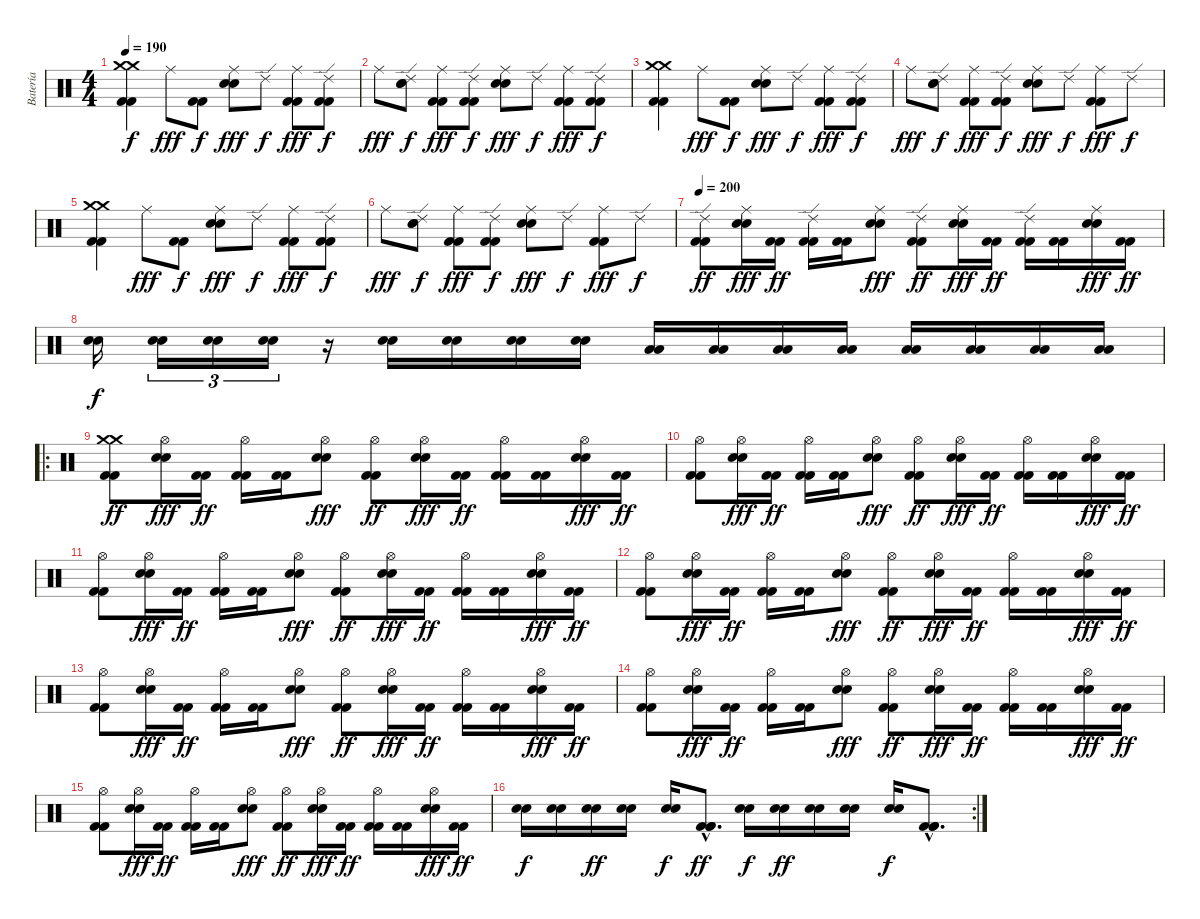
\track ("Batería" "Batería") {instrument percussion}
\staff {score}
\articulation defaults
\ts (4 4)
\tempo 190
\clef neutral
\ks c
("Crash medium (hit)" "Crash medium (hit)" "Kick (hit) 2" "Kick (hit) 2").4{dy f} "Ride (middle)".8{dy fff} ("Kick (hit) 2" "Kick (hit) 2").8{dy f} ("Ride (middle)" "Electric Snare (hit)" "Electric Snare (hit)").8{dy fff} "Ride (edge) 2".8{dy f} ("Ride (middle)" "Kick (hit) 2" "Kick (hit) 2").8{dy fff} ("Ride (edge) 2" "Kick (hit) 2" "Kick (hit) 2").8{dy f} |
"Ride (middle)".8{dy fff} ("Ride (edge) 2" "Electric Snare (hit)" "Electric Snare (hit)").8{dy f} ("Ride (middle)" "Kick (hit) 2" "Kick (hit) 2").8{dy fff} ("Ride (edge) 2" "Kick (hit) 2" "Kick (hit) 2").8{dy f} ("Ride (middle)" "Electric Snare (hit)" "Electric Snare (hit)").8{dy fff} "Ride (edge) 2".8{dy f} ("Ride (middle)" "Kick (hit) 2" "Kick (hit) 2").8{dy fff} ("Ride (edge) 2" "Kick (hit) 2" "Kick (hit) 2").8{dy f} |
("Crash medium (hit)" "Crash medium (hit)" "Kick (hit) 2" "Kick (hit) 2").4 "Ride (middle)".8{dy fff} ("Kick (hit) 2" "Kick (hit) 2").8{dy f} ("Ride (middle)" "Electric Snare (hit)" "Electric Snare (hit)").8{dy fff} "Ride (edge) 2".8{dy f} ("Ride (middle)" "Kick (hit) 2" "Kick (hit) 2").8{dy fff} ("Ride (edge) 2" "Kick (hit) 2" "Kick (hit) 2").8{dy f} |
"Ride (middle)".8{dy fff} ("Ride (edge) 2" "Electric Snare (hit)" "Electric Snare (hit)").8{dy f} ("Ride (middle)" "Kick (hit) 2" "Kick (hit) 2").8{dy fff} ("Ride (edge) 2" "Kick (hit) 2" "Kick (hit) 2").8{dy f} ("Ride (middle)" "Electric Snare (hit)" "Electric Snare (hit)").8{dy fff} "Ride (edge) 2".8{dy f} ("Ride (middle)" "Kick (hit) 2" "Kick (hit) 2").8{dy fff} "Ride (edge) 2".8{dy f} |
("Crash medium (hit)" "Crash medium (hit)" "Kick (hit) 2" "Kick (hit) 2").4 "Ride (middle)".8{dy fff} ("Kick (hit) 2" "Kick (hit) 2").8{dy f} ("Ride (middle)" "Electric Snare (hit)" "Electric Snare (hit)").8{dy fff} "Ride (edge) 2".8{dy f} ("Ride (middle)" "Kick (hit) 2" "Kick (hit) 2").8{dy fff} ("Ride (edge) 2" "Kick (hit) 2" "Kick (hit) 2").8{dy f} |
"Ride (middle)".8{dy fff} ("Ride (edge) 2" "Electric Snare (hit)" "Electric Snare (hit)").8{dy f} ("Ride (middle)" "Kick (hit) 2" "Kick (hit) 2").8{dy fff} ("Ride (edge) 2" "Kick (hit) 2" "Kick (hit) 2").8{dy f} ("Ride (middle)" "Electric Snare (hit)" "Electric Snare (hit)").8{dy fff} "Ride (edge) 2".8{dy f} ("Ride (middle)" "Kick (hit) 2" "Kick (hit) 2").8{dy fff} "Ride (edge) 2".8{dy f} |
\tempo 200
("Ride (edge) 2" "Kick (hit) 2" "Kick (hit) 2").8{dy ff} ("Ride (middle)" "Electric Snare (hit)" "Electric Snare (hit)").16{dy fff} ("Kick (hit) 2" "Kick (hit) 2").16{dy ff} ("Ride (edge) 2" "Kick (hit) 2" "Kick (hit) 2").16 ("Kick (hit) 2" "Kick (hit) 2").16 ("Ride (middle)" "Electric Snare (hit)" "Electric Snare (hit)").8{dy fff} ("Ride (edge) 2" "Kick (hit) 2" "Kick (hit) 2").8{dy ff} ("Ride (middle)" "Electric Snare (hit)" "Electric Snare (hit)").16{dy fff} ("Kick (hit) 2" "Kick (hit) 2").16{dy ff} ("Ride (edge) 2" "Kick (hit) 2" "Kick (hit) 2").16 ("Kick (hit) 2" "Kick (hit) 2").16 ("Ride (middle)" "Electric Snare (hit)" "Electric Snare (hit)").16{dy fff} ("Kick (hit) 2" "Kick (hit) 2").16{dy ff} |
("Electric Snare (hit)" "Electric Snare (hit)").16{dy f} ("Electric Snare (hit)" "Electric Snare (hit)").16{tu (3 2)} ("Electric Snare (hit)" "Electric Snare (hit)").16{tu (3 2)} ("Electric Snare (hit)" "Electric Snare (hit)").16{tu (3 2)} r.16 ("Electric Snare (hit)" "Electric Snare (hit)").16 ("Electric Snare (hit)" "Electric Snare (hit)").16 ("Electric Snare (hit)" "Electric Snare (hit)").16 ("Electric Snare (hit)" "Electric Snare (hit)").16 ("Low Tom (hit)" "Low Tom (hit)").16 ("Low Tom (hit)" "Low Tom (hit)").16 ("Low Tom (hit)" "Low Tom (hit)").16 ("Low Tom (hit)" "Low Tom (hit)").16 ("Low Tom (hit)" "Low Tom (hit)").16 ("Low Tom (hit)" "Low Tom (hit)").16 ("Low Tom (hit)" "Low Tom (hit)").16 ("Low Tom (hit)" "Low Tom (hit)").16 |
\ro
("Crash medium (hit)" "Crash medium (hit)" "Kick (hit) 2" "Kick (hit) 2").8{dy ff} ("Hi-Hat (open)" "Electric Snare (hit)" "Electric Snare (hit)").16{dy fff} ("Kick (hit) 2" "Kick (hit) 2").16{dy ff} ("Hi-Hat (open)" "Kick (hit) 2" "Kick (hit) 2").16 ("Kick (hit) 2" "Kick (hit) 2").16 ("Hi-Hat (open)" "Electric Snare (hit)" "Electric Snare (hit)").8{dy fff} ("Hi-Hat (open)" "Kick (hit) 2" "Kick (hit) 2").8{dy ff} ("Hi-Hat (open)" "Electric Snare (hit)" "Electric Snare (hit)").16{dy fff} ("Kick (hit) 2" "Kick (hit) 2").16{dy ff} ("Hi-Hat (open)" "Kick (hit) 2" "Kick (hit) 2").16 ("Kick (hit) 2" "Kick (hit) 2").16 ("Hi-Hat (open)" "Electric Snare (hit)" "Electric Snare (hit)").16{dy fff} ("Kick (hit) 2" "Kick (hit) 2").16{dy ff} |
("Hi-Hat (open)" "Kick (hit) 2" "Kick (hit) 2").8 ("Hi-Hat (open)" "Electric Snare (hit)" "Electric Snare (hit)").16{dy fff} ("Kick (hit) 2" "Kick (hit) 2").16{dy ff} ("Hi-Hat (open)" "Kick (hit) 2" "Kick (hit) 2").16 ("Kick (hit) 2" "Kick (hit) 2").16 ("Hi-Hat (open)" "Electric Snare (hit)" "Electric Snare (hit)").8{dy fff} ("Hi-Hat (open)" "Kick (hit) 2" "Kick (hit) 2").8{dy ff} ("Hi-Hat (open)" "Electric Snare (hit)" "Electric Snare (hit)").16{dy fff} ("Kick (hit) 2" "Kick (hit) 2").16{dy ff} ("Hi-Hat (open)" "Kick (hit) 2" "Kick (hit) 2").16 ("Kick (hit) 2" "Kick (hit) 2").16 ("Hi-Hat (open)" "Electric Snare (hit)" "Electric Snare (hit)").16{dy fff} ("Kick (hit) 2" "Kick (hit) 2").16{dy ff} |
("Hi-Hat (open)" "Kick (hit) 2" "Kick (hit) 2").8 ("Hi-Hat (open)" "Electric Snare (hit)" "Electric Snare (hit)").16{dy fff} ("Kick (hit) 2" "Kick (hit) 2").16{dy ff} ("Hi-Hat (open)" "Kick (hit) 2" "Kick (hit) 2").16 ("Kick (hit) 2" "Kick (hit) 2").16 ("Hi-Hat (open)" "Electric Snare (hit)" "Electric Snare (hit)").8{dy fff} ("Hi-Hat (open)" "Kick (hit) 2" "Kick (hit) 2").8{dy ff} ("Hi-Hat (open)" "Electric Snare (hit)" "Electric Snare (hit)").16{dy fff} ("Kick (hit) 2" "Kick (hit) 2").16{dy ff} ("Hi-Hat (open)" "Kick (hit) 2" "Kick (hit) 2").16 ("Kick (hit) 2" "Kick (hit) 2").16 ("Hi-Hat (open)" "Electric Snare (hit)" "Electric Snare (hit)").16{dy fff} ("Kick (hit) 2" "Kick (hit) 2").16{dy ff} |
("Hi-Hat (open)" "Kick (hit) 2" "Kick (hit) 2").8 ("Hi-Hat (open)" "Electric Snare (hit)" "Electric Snare (hit)").16{dy fff} ("Kick (hit) 2" "Kick (hit) 2").16{dy ff} ("Hi-Hat (open)" "Kick (hit) 2" "Kick (hit) 2").16 ("Kick (hit) 2" "Kick (hit) 2").16 ("Hi-Hat (open)" "Electric Snare (hit)" "Electric Snare (hit)").8{dy fff} ("Hi-Hat (open)" "Kick (hit) 2" "Kick (hit) 2").8{dy ff} ("Hi-Hat (open)" "Electric Snare (hit)" "Electric Snare (hit)").16{dy fff} ("Kick (hit) 2" "Kick (hit) 2").16{dy ff} ("Hi-Hat (open)" "Kick (hit) 2" "Kick (hit) 2").16 ("Kick (hit) 2" "Kick (hit) 2").16 ("Hi-Hat (open)" "Electric Snare (hit)" "Electric Snare (hit)").16{dy fff} ("Kick (hit) 2" "Kick (hit) 2").16{dy ff} |
("Hi-Hat (open)" "Kick (hit) 2" "Kick (hit) 2").8 ("Hi-Hat (open)" "Electric Snare (hit)" "Electric Snare (hit)").16{dy fff} ("Kick (hit) 2" "Kick (hit) 2").16{dy ff} ("Hi-Hat (open)" "Kick (hit) 2" "Kick (hit) 2").16 ("Kick (hit) 2" "Kick (hit) 2").16 ("Hi-Hat (open)" "Electric Snare (hit)" "Electric Snare (hit)").8{dy fff} ("Hi-Hat (open)" "Kick (hit) 2" "Kick (hit) 2").8{dy ff} ("Hi-Hat (open)" "Electric Snare (hit)" "Electric Snare (hit)").16{dy fff} ("Kick (hit) 2" "Kick (hit) 2").16{dy ff} ("Hi-Hat (open)" "Kick (hit) 2" "Kick (hit) 2").16 ("Kick (hit) 2" "Kick (hit) 2").16 ("Hi-Hat (open)" "Electric Snare (hit)" "Electric Snare (hit)").16{dy fff} ("Kick (hit) 2" "Kick (hit) 2").16{dy ff} |
("Hi-Hat (open)" "Kick (hit) 2" "Kick (hit) 2").8 ("Hi-Hat (open)" "Electric Snare (hit)" "Electric Snare (hit)").16{dy fff} ("Kick (hit) 2" "Kick (hit) 2").16{dy ff} ("Hi-Hat (open)" "Kick (hit) 2" "Kick (hit) 2").16 ("Kick (hit) 2" "Kick (hit) 2").16 ("Hi-Hat (open)" "Electric Snare (hit)" "Electric Snare (hit)").8{dy fff} ("Hi-Hat (open)" "Kick (hit) 2" "Kick (hit) 2").8{dy ff} ("Hi-Hat (open)" "Electric Snare (hit)" "Electric Snare (hit)").16{dy fff} ("Kick (hit) 2" "Kick (hit) 2").16{dy ff} ("Hi-Hat (open)" "Kick (hit) 2" "Kick (hit) 2").16 ("Kick (hit) 2" "Kick (hit) 2").16 ("Hi-Hat (open)" "Electric Snare (hit)" "Electric Snare (hit)").16{dy fff} ("Kick (hit) 2" "Kick (hit) 2").16{dy ff} |
("Hi-Hat (open)" "Kick (hit) 2" "Kick (hit) 2").8 ("Hi-Hat (open)" "Electric Snare (hit)" "Electric Snare (hit)").16{dy fff} ("Kick (hit) 2" "Kick (hit) 2").16{dy ff} ("Hi-Hat (open)" "Kick (hit) 2" "Kick (hit) 2").16 ("Kick (hit) 2" "Kick (hit) 2").16 ("Hi-Hat (open)" "Electric Snare (hit)" "Electric Snare (hit)").8{dy fff} ("Hi-Hat (open)" "Kick (hit) 2" "Kick (hit) 2").8{dy ff} ("Hi-Hat (open)" "Electric Snare (hit)" "Electric Snare (hit)").16{dy fff} ("Kick (hit) 2" "Kick (hit) 2").16{dy ff} ("Hi-Hat (open)" "Kick (hit) 2" "Kick (hit) 2").16 ("Kick (hit) 2" "Kick (hit) 2").16 ("Hi-Hat (open)" "Electric Snare (hit)" "Electric Snare (hit)").16{dy fff} ("Kick (hit) 2" "Kick (hit) 2").16{dy ff} |
\rc 2
("Electric Snare (hit)" "Electric Snare (hit)").16{dy f} ("Electric Snare (hit)" "Electric Snare (hit)").16 ("Electric Snare (hit)" "Electric Snare (hit)").16{dy ff} ("Electric Snare (hit)" "Electric Snare (hit)").16 ("Electric Snare (hit)" "Electric Snare (hit)").16{dy f} ("Kick (hit) 2"{hac} "Kick (hit) 2"{hac} "Kick (hit) 2"{hac}).8{d dy ff} ("Electric Snare (hit)" "Electric Snare (hit)").16{dy f} ("Electric Snare (hit)" "Electric Snare (hit)").16{dy ff} ("Electric Snare (hit)" "Electric Snare (hit)").16 ("Electric Snare (hit)" "Electric Snare (hit)").16 ("Electric Snare (hit)" "Electric Snare (hit)").16{dy f} ("Kick (hit) 2"{hac} "Kick (hit) 2"{hac} "Kick (hit) 2"{hac}).8{d}
